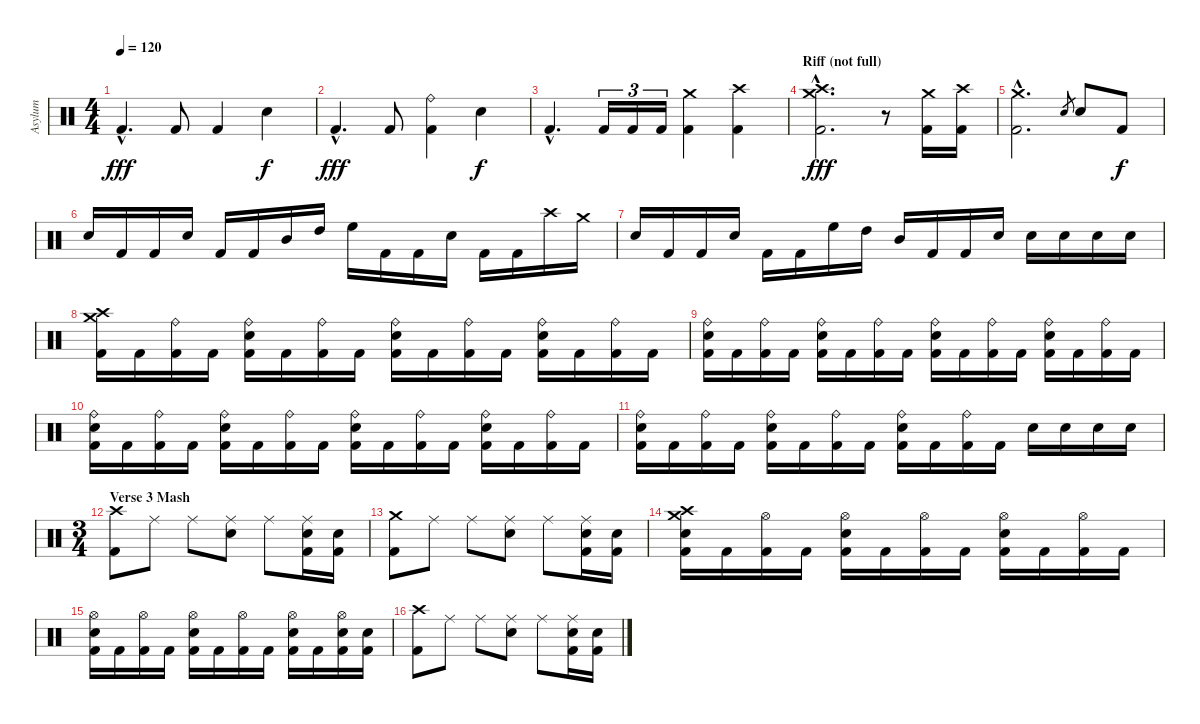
\track ("Asylum" "Asylum") {instrument percussion}
\staff {score}
\articulation defaults
\ts (4 4)
\tempo 120
\clef neutral
\ks c "Kick (hit) 2"{hac}.4{d dy fff} "Kick (hit) 2".8 "Kick (hit) 2".4 "Electric Snare (hit)".4{dy f}
|
"Kick (hit) 2"{hac}.4{d dy fff} "Kick (hit) 2".8 ("Ride (bell)" "Kick (hit) 2").4 "Electric Snare (hit)".4{dy f} |
"Kick (hit) 2"{hac}.4{d} "Kick (hit) 2".16{tu (3 2)} "Kick (hit) 2".16{tu (3 2)} "Kick (hit) 2".16{tu (3 2)} ("Crash medium (hit)" "Kick (hit) 2").4 ("Crash high (hit)" "Kick (hit) 2").4 |
\section ("" "Riff (not full)")
("Crash high (hit)"{hac} "Crash medium (hit)"{hac} "Kick (hit) 2"{hac}).2{d dy fff} r.8 ("Crash medium (hit)" "Kick (hit) 2").16 ("Crash high (hit)" "Kick (hit) 2").16 |
("Crash medium (hit)"{hac} "Kick (hit) 2"{hac}).2{d} "Electric Snare (hit)".8{gr} "Electric Snare (hit)".8 "Kick (hit) 2".8{dy f} |
"Electric Snare (hit)".16 "Kick (hit) 2".16 "Kick (hit) 2".16 "Electric Snare (hit)".16 "Kick (hit) 2".16 "Kick (hit) 2".16 "Mid Tom (hit)".16 "High Tom (hit)".16 "High Floor Tom (hit)".16 "Kick (hit) 2".16 "Kick (hit) 2".16 "Electric Snare (hit)".16 "Kick (hit) 2".16 "Kick (hit) 2".16 "Crash high (hit)".16 "Crash medium (hit)".16 |
"Electric Snare (hit)".16 "Kick (hit) 2".16 "Kick (hit) 2".16 "Electric Snare (hit)".16 "Kick (hit) 2".16 "Kick (hit) 2".16 "High Floor Tom (hit)".16 "High Tom (hit)".16 "Mid Tom (hit)".16 "Kick (hit) 2".16 "Kick (hit) 2".16 "Electric Snare (hit)".16 "Electric Snare (hit)".16 "Electric Snare (hit)".16 "Electric Snare (hit)".16 "Electric Snare (hit)".16 |
("Crash medium (hit)" "Crash high (hit)" "Kick (hit) 2").16 "Kick (hit) 2".16 ("Ride (bell)" "Kick (hit) 2").16 "Kick (hit) 2".16 ("Ride (bell)" "Electric Snare (hit)" "Kick (hit) 2").16 "Kick (hit) 2".16 ("Ride (bell)" "Kick (hit) 2").16 "Kick (hit) 2".16 ("Ride (bell)" "Electric Snare (hit)" "Kick (hit) 2").16 "Kick (hit) 2".16 ("Ride (bell)" "Kick (hit) 2").16 "Kick (hit) 2".16 ("Ride (bell)" "Electric Snare (hit)" "Kick (hit) 2").16 "Kick (hit) 2".16 ("Ride (bell)" "Kick (hit) 2").16 "Kick (hit) 2".16 |
("Ride (bell)" "Electric Snare (hit)" "Kick (hit) 2").16 "Kick (hit) 2".16 ("Ride (bell)" "Kick (hit) 2").16 "Kick (hit) 2".16 ("Ride (bell)" "Electric Snare (hit)" "Kick (hit) 2").16 "Kick (hit) 2".16 ("Ride (bell)" "Kick (hit) 2").16 "Kick (hit) 2".16 ("Ride (bell)" "Electric Snare (hit)" "Kick (hit) 2").16 "Kick (hit) 2".16 ("Ride (bell)" "Kick (hit) 2").16 "Kick (hit) 2".16 ("Ride (bell)" "Electric Snare (hit)" "Kick (hit) 2").16 "Kick (hit) 2".16 ("Ride (bell)" "Kick (hit) 2").16 "Kick (hit) 2".16 |
("Ride (bell)" "Electric Snare (hit)" "Kick (hit) 2").16 "Kick (hit) 2".16 ("Ride (bell)" "Kick (hit) 2").16 "Kick (hit) 2".16 ("Ride (bell)" "Electric Snare (hit)" "Kick (hit) 2").16 "Kick (hit) 2".16 ("Ride (bell)" "Kick (hit) 2").16 "Kick (hit) 2".16 ("Ride (bell)" "Electric Snare (hit)" "Kick (hit) 2").16 "Kick (hit) 2".16 ("Ride (bell)" "Kick (hit) 2").16 "Kick (hit) 2".16 ("Ride (bell)" "Electric Snare (hit)" "Kick (hit) 2").16 "Kick (hit) 2".16 ("Ride (bell)" "Kick (hit) 2").16 "Kick (hit) 2".16 |
("Ride (bell)" "Electric Snare (hit)" "Kick (hit) 2").16 "Kick (hit) 2".16 ("Ride (bell)" "Kick (hit) 2").16 "Kick (hit) 2".16 ("Ride (bell)" "Electric Snare (hit)" "Kick (hit) 2").16 "Kick (hit) 2".16 ("Ride (bell)" "Kick (hit) 2").16 "Kick (hit) 2".16 ("Ride (bell)" "Electric Snare (hit)" "Kick (hit) 2").16 "Kick (hit) 2".16 ("Ride (bell)" "Kick (hit) 2").16 "Kick (hit) 2".16 "Electric Snare (hit)".16 "Electric Snare (hit)".16 "Electric Snare (hit)".16 "Electric Snare (hit)".16 |
\ts (3 4)
\section ("" "Verse 3 Mash")
("Crash high (hit)" "Kick (hit) 2").8 "Ride (middle)".8 "Ride (middle)".8 ("Ride (middle)" "Electric Snare (hit)").8 "Ride (middle)".8 ("Ride (middle)" "Electric Snare (hit)" "Kick (hit) 2").16 ("Electric Snare (hit)" "Kick (hit) 2").16 |
("Crash medium (hit)" "Kick (hit) 2").8 "Ride (middle)".8 "Ride (middle)".8 ("Ride (middle)" "Electric Snare (hit)").8 "Ride (middle)".8 ("Ride (middle)" "Electric Snare (hit)" "Kick (hit) 2").16 ("Electric Snare (hit)" "Kick (hit) 2").16 |
("Crash medium (hit)" "Crash high (hit)" "Electric Snare (hit)" "Kick (hit) 2").16 "Kick (hit) 2".16 ("Hi-Hat (open)" "Kick (hit) 2").16 "Kick (hit) 2".16 ("Hi-Hat (open)" "Electric Snare (hit)" "Kick (hit) 2").16 "Kick (hit) 2".16 ("Hi-Hat (open)" "Kick (hit) 2").16 "Kick (hit) 2".16 ("Hi-Hat (open)" "Electric Snare (hit)" "Kick (hit) 2").16 "Kick (hit) 2".16 ("Hi-Hat (open)" "Kick (hit) 2").16 "Kick (hit) 2".16 |
("Hi-Hat (open)" "Electric Snare (hit)" "Kick (hit) 2").16 "Kick (hit) 2".16 ("Hi-Hat (open)" "Kick (hit) 2").16 "Kick (hit) 2".16 ("Hi-Hat (open)" "Electric Snare (hit)" "Kick (hit) 2").16 "Kick (hit) 2".16 ("Hi-Hat (open)" "Kick (hit) 2").16 "Kick (hit) 2".16 ("Hi-Hat (open)" "Electric Snare (hit)" "Kick (hit) 2").16 "Kick (hit) 2".16 ("Hi-Hat (open)" "Electric Snare (hit)" "Kick (hit) 2").16 ("Electric Snare (hit)" "Kick (hit) 2").16 |
("Crash high (hit)" "Kick (hit) 2").8 "Ride (middle)".8 "Ride (middle)".8 ("Ride (middle)" "Electric Snare (hit)").8 "Ride (middle)".8 ("Ride (middle)" "Electric Snare (hit)" "Kick (hit) 2").16 ("Electric Snare (hit)" "Kick (hit) 2").16
